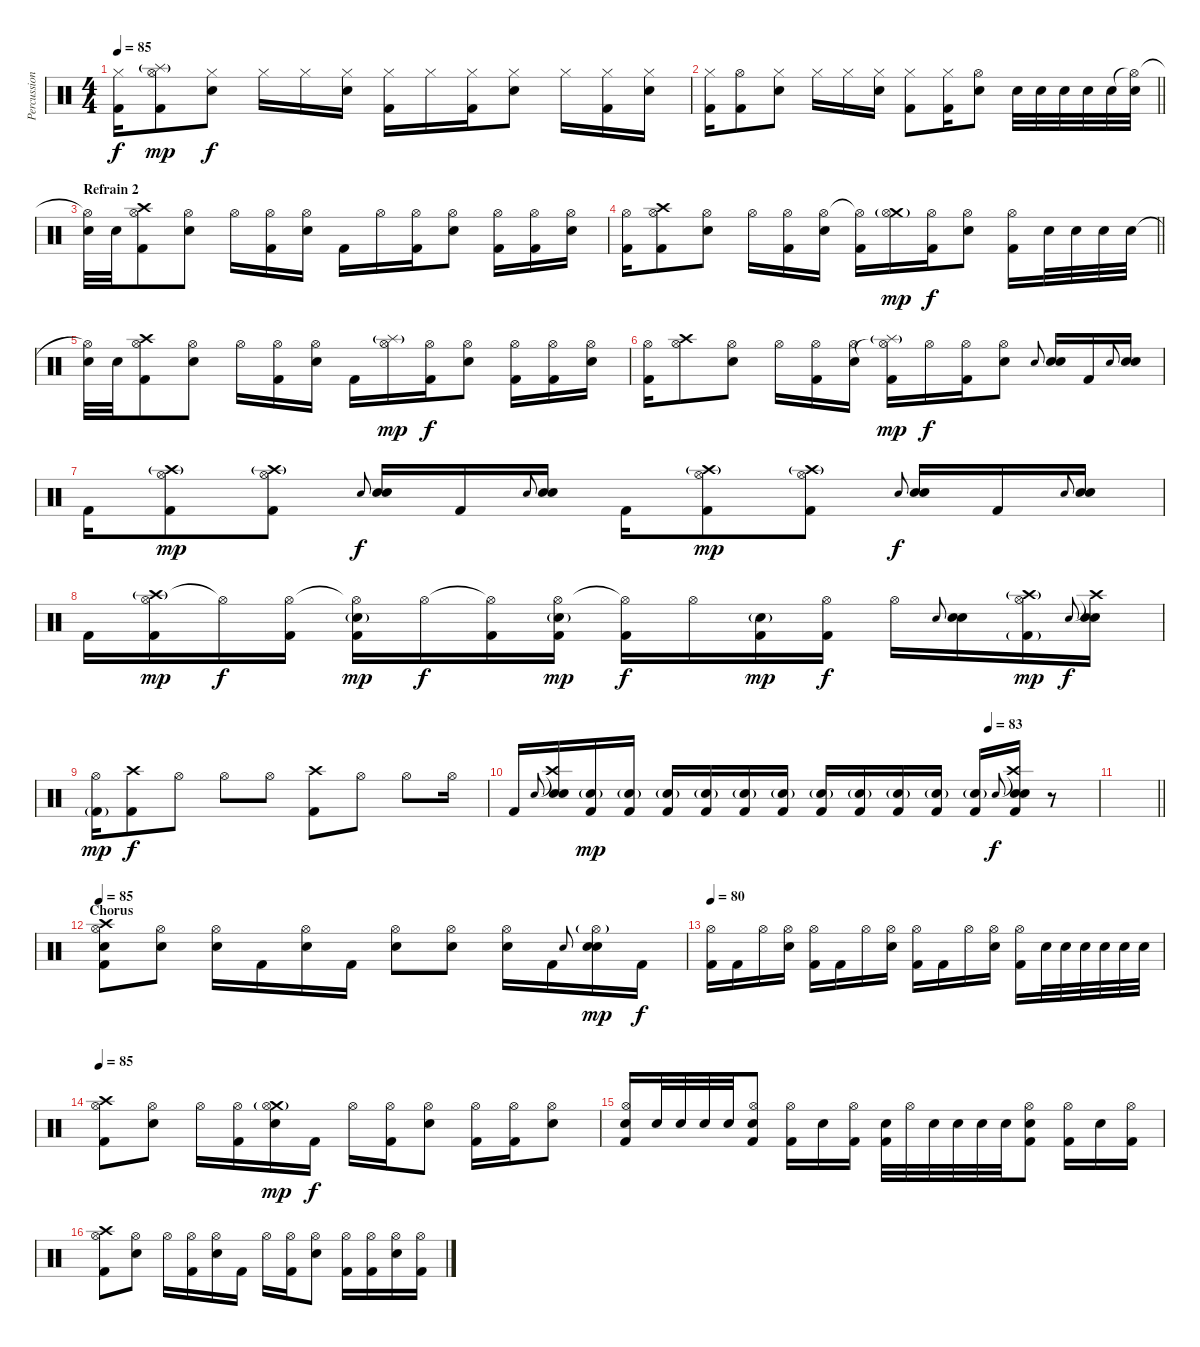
\track ("Percussion" "Percussion") {instrument percussion}
\staff {score}
\articulation defaults
\ts (4 4)
\tempo 85
\clef neutral
\ks c
("Hi-Hat (closed)" "Kick (hit) 2").16{dy f} ("Splash (hit)"{g} "Hi-Hat (open)" "Kick (hit) 2").8{dy mp} ("Hi-Hat (closed)" "Snare (hit) 2").8{dy f} "Hi-Hat (closed)".16 "Hi-Hat (closed)".16 ("Hi-Hat (closed)" "Snare (hit) 2").16 ("Hi-Hat (closed)" "Kick (hit) 2").16 "Hi-Hat (closed)".16 ("Hi-Hat (closed)" "Kick (hit) 2").16 ("Hi-Hat (closed)" "Snare (hit) 2").8 "Hi-Hat (closed)".16 ("Hi-Hat (closed)" "Kick (hit) 2").16 ("Hi-Hat (closed)" "Snare (hit) 2").16 |
\barLineRight lightlight
("Hi-Hat (closed)" "Kick (hit) 2").16 ("Hi-Hat (open)" "Kick (hit) 2").8 ("Hi-Hat (closed)" "Snare (hit) 2").8 "Hi-Hat (closed)".16 "Hi-Hat (closed)".16 ("Hi-Hat (closed)" "Snare (hit) 2").16 ("Hi-Hat (closed)" "Kick (hit) 2").8 ("Hi-Hat (closed)" "Kick (hit) 2").16 ("Hi-Hat (open)" "Snare (hit) 2").8 "Snare (hit) 2".32 "Snare (hit) 2".32 "Snare (hit) 2".32 "Snare (hit) 2".32 "Snare (hit) 2".32 ("Hi-Hat (open)"{t} "Snare (hit) 2").32 |
\section ("" "Refrain 2")
("Hi-Hat (open)"{t} "Snare (hit) 2").32 "Snare (hit) 2".32 ("Crash high (hit)" "Hi-Hat (open)" "Kick (hit) 2").8 ("Hi-Hat (open)" "Snare (hit) 2").8 "Hi-Hat (open)".16 ("Hi-Hat (open)" "Kick (hit) 2").16 ("Hi-Hat (open)" "Snare (hit) 2").16 "Kick (hit) 2".16 "Hi-Hat (open)".16 ("Hi-Hat (open)" "Kick (hit) 2").16 ("Hi-Hat (open)" "Snare (hit) 2").8 ("Hi-Hat (open)" "Kick (hit) 2").16 ("Hi-Hat (open)" "Kick (hit) 2").16 ("Hi-Hat (open)" "Snare (hit) 2").16 |
\barLineRight lightlight
("Hi-Hat (open)" "Kick (hit) 2").16 ("Crash high (hit)" "Hi-Hat (open)" "Kick (hit) 2").8 ("Hi-Hat (open)" "Snare (hit) 2").8 "Hi-Hat (open)".16 ("Hi-Hat (open)" "Kick (hit) 2").16 ("Hi-Hat (open)" "Snare (hit) 2").16 ("Hi-Hat (open)"{t} "Kick (hit) 2").16 ("Crash medium (hit)"{g} "Hi-Hat (open)").16{dy mp} ("Hi-Hat (open)" "Kick (hit) 2").16{dy f} ("Hi-Hat (open)" "Snare (hit) 2").8 ("Hi-Hat (open)" "Kick (hit) 2").16 "Snare (hit) 2".32 "Snare (hit) 2".32 "Snare (hit) 2".32 "Snare (hit) 2".32 |
("Hi-Hat (open)"{t} "Snare (hit) 2").32 "Snare (hit) 2".32 ("Crash high (hit)" "Hi-Hat (open)" "Kick (hit) 2").8 ("Hi-Hat (open)" "Snare (hit) 2").8 "Hi-Hat (open)".16 ("Hi-Hat (open)" "Kick (hit) 2").16 ("Hi-Hat (open)" "Snare (hit) 2").16 "Kick (hit) 2".16 ("Splash (hit)"{g} "Hi-Hat (open)").16{dy mp} ("Hi-Hat (open)" "Kick (hit) 2").16{dy f} ("Hi-Hat (open)" "Snare (hit) 2").8 ("Hi-Hat (open)" "Kick (hit) 2").16 ("Hi-Hat (open)" "Kick (hit) 2").16 ("Hi-Hat (open)" "Snare (hit) 2").16 |
("Hi-Hat (open)" "Kick (hit) 2").16 ("Crash high (hit)" "Hi-Hat (open)").8 ("Hi-Hat (open)" "Snare (hit) 2").8 "Hi-Hat (open)".16 ("Hi-Hat (open)" "Kick (hit) 2").16 ("Hi-Hat (open)" "Snare (hit) 2").16 ("Splash (hit)"{g} "Hi-Hat (open)"{t} "Kick (hit) 2").16{dy mp} "Hi-Hat (open)".16{dy f} ("Hi-Hat (open)" "Kick (hit) 2").16 ("Hi-Hat (open)" "Snare (hit) 2").8 "Snare (hit) 2"{h}.8{gr onbeat} ("Electric Snare (hit)" "Snare (hit) 2").16 "Kick (hit) 2".16 "Snare (hit) 2".8{gr onbeat} ("Electric Snare (hit)" "Snare (hit) 2").16 |
"Kick (hit) 2".16 ("Crash high (hit)"{g} "Hi-Hat (open)" "Kick (hit) 2").8{dy mp} ("Crash high (hit)"{g} "Hi-Hat (open)" "Kick (hit) 2").8 "Snare (hit) 2"{h}.8{gr onbeat dy f} ("Electric Snare (hit)" "Snare (hit) 2").16 "Kick (hit) 2".16 "Snare (hit) 2".8{gr onbeat} ("Electric Snare (hit)" "Snare (hit) 2").16 "Kick (hit) 2".16 ("Crash high (hit)"{g} "Hi-Hat (open)" "Kick (hit) 2").8{dy mp} ("Crash high (hit)"{g} "Hi-Hat (open)" "Kick (hit) 2").8 "Snare (hit) 2"{h}.8{gr onbeat dy f} ("Electric Snare (hit)" "Snare (hit) 2").16 "Kick (hit) 2".16 "Snare (hit) 2".8{gr onbeat} ("Electric Snare (hit)" "Snare (hit) 2").16 |
"Kick (hit) 2".16 ("Crash high (hit)"{g} "Hi-Hat (open)" "Kick (hit) 2").16{dy mp} "Hi-Hat (open)"{t}.16{dy f} ("Hi-Hat (open)" "Kick (hit) 2").16 ("Hi-Hat (open)"{t} "Snare (hit) 2"{g} "Kick (hit) 2").16{dy mp} "Hi-Hat (open)".16{dy f} ("Hi-Hat (open)"{t} "Kick (hit) 2").16 ("Hi-Hat (open)" "Snare (hit) 2"{g} "Kick (hit) 2").16{dy mp} ("Hi-Hat (open)"{t} "Kick (hit) 2").16{dy f} "Hi-Hat (open)".16 ("Snare (hit) 2"{g} "Kick (hit) 2").16{dy mp} ("Hi-Hat (open)" "Kick (hit) 2").16{dy f} "Hi-Hat (open)".16 "Snare (hit) 2"{h}.8{gr onbeat} ("Electric Snare (hit)" "Snare (hit) 2").16 ("Crash high (hit)"{g} "Hi-Hat (open)" "Kick (hit) 2"{g}).16{dy mp} "Snare (hit) 2"{h}.8{gr onbeat dy f} ("Crash high (hit)"{t} "Electric Snare (hit)" "Snare (hit) 2").16 |
("Hi-Hat (open)" "Kick (hit) 2"{g}).16{dy mp} ("Crash high (hit)" "Kick (hit) 2").8{dy f} "Hi-Hat (open)".8 "Hi-Hat (open)".8 "Hi-Hat (open)".8 ("Crash high (hit)" "Kick (hit) 2").8 "Hi-Hat (open)".8 "Hi-Hat (open)".8 "Hi-Hat (open)".16 |
\tempo (83 0.8125)
"Kick (hit) 2".16 "Snare (hit) 2"{h}.8{gr onbeat} ("Crash high (hit)"{t} "Electric Snare (hit)" "Snare (hit) 2").16 ("Snare (hit) 2"{g} "Kick (hit) 2").16{dy mp} ("Snare (hit) 2"{g} "Kick (hit) 2").16 ("Snare (hit) 2"{g} "Kick (hit) 2").16 ("Snare (hit) 2"{g} "Kick (hit) 2").16 ("Snare (hit) 2"{g} "Kick (hit) 2").16 ("Snare (hit) 2"{g} "Kick (hit) 2").16 ("Snare (hit) 2"{g} "Kick (hit) 2").16 ("Snare (hit) 2"{g} "Kick (hit) 2").16 ("Snare (hit) 2"{g} "Kick (hit) 2").16 ("Snare (hit) 2"{g} "Kick (hit) 2").16 ("Snare (hit) 2"{g} "Kick (hit) 2").16 "Snare (hit) 2"{h}.8{gr onbeat dy f} ("Crash high (hit)"{t} "Electric Snare (hit)" "Snare (hit) 2" "Kick (hit) 2").16 r.8 |
\barLineRight lightlight
|
\section ("" "Chorus")
\tempo 87
\tempo 85
("Crash high (hit)" "Hi-Hat (open)" "Snare (hit) 2" "Kick (hit) 2").8 ("Hi-Hat (open)" "Snare (hit) 2").8 ("Hi-Hat (open)" "Snare (hit) 2").16 "Kick (hit) 2".16 ("Hi-Hat (open)" "Snare (hit) 2").16 "Kick (hit) 2".16 ("Hi-Hat (open)" "Snare (hit) 2").8 ("Hi-Hat (open)" "Snare (hit) 2").8 ("Hi-Hat (open)" "Snare (hit) 2").16 "Kick (hit) 2".16 "Snare (hit) 2"{h}.8{gr onbeat} ("Hi-Hat (open)"{g} "Electric Snare (hit)" "Snare (hit) 2").16{dy mp} "Kick (hit) 2".16{dy f} |
\tempo 80
("Hi-Hat (open)" "Kick (hit) 2").16 "Kick (hit) 2".16 "Hi-Hat (open)".16 ("Hi-Hat (open)" "Snare (hit) 2").16 ("Hi-Hat (open)" "Kick (hit) 2").16 "Kick (hit) 2".16 "Hi-Hat (open)".16 ("Hi-Hat (open)" "Snare (hit) 2").16 ("Hi-Hat (open)" "Kick (hit) 2").16 "Kick (hit) 2".16 "Hi-Hat (open)".16 ("Hi-Hat (open)" "Snare (hit) 2").16 ("Hi-Hat (open)" "Kick (hit) 2").16 "Snare (hit) 2".32 "Snare (hit) 2".32 "Snare (hit) 2".32 "Snare (hit) 2".32 "Snare (hit) 2".32 "Snare (hit) 2".32 |
\tempo 87
\tempo 85
("Crash high (hit)" "Hi-Hat (open)" "Kick (hit) 2").8 ("Hi-Hat (open)" "Snare (hit) 2").8 "Hi-Hat (open)".16 ("Hi-Hat (open)" "Kick (hit) 2").16 ("Crash medium (hit)"{g} "Hi-Hat (open)" "Snare (hit) 2").16{dy mp} "Kick (hit) 2".16{dy f} "Hi-Hat (open)".16 ("Hi-Hat (open)" "Kick (hit) 2").16 ("Hi-Hat (open)" "Snare (hit) 2").8 ("Hi-Hat (open)" "Kick (hit) 2").16 ("Hi-Hat (open)" "Kick (hit) 2").16 ("Hi-Hat (open)" "Snare (hit) 2").8 |
("Hi-Hat (open)" "Snare (hit) 2" "Kick (hit) 2").16 "Snare (hit) 2".32 "Snare (hit) 2".32 "Snare (hit) 2".32 "Snare (hit) 2".32 ("Hi-Hat (open)" "Snare (hit) 2" "Kick (hit) 2").8 ("Hi-Hat (open)" "Kick (hit) 2").16 "Snare (hit) 2".16 ("Hi-Hat (open)" "Kick (hit) 2").16 ("Snare (hit) 2" "Kick (hit) 2").32 "Hi-Hat (open)".32 "Snare (hit) 2".32 "Snare (hit) 2".32 "Snare (hit) 2".32 "Snare (hit) 2".32 ("Hi-Hat (open)" "Snare (hit) 2" "Kick (hit) 2").8 ("Hi-Hat (open)" "Kick (hit) 2").16 "Snare (hit) 2".16 ("Hi-Hat (open)" "Kick (hit) 2").16 |
("Crash high (hit)" "Hi-Hat (open)" "Kick (hit) 2").8 ("Hi-Hat (open)" "Snare (hit) 2").8 "Hi-Hat (open)".16 ("Hi-Hat (open)" "Kick (hit) 2").16 ("Hi-Hat (open)" "Snare (hit) 2").16 "Kick (hit) 2".16 "Hi-Hat (open)".16 ("Hi-Hat (open)" "Kick (hit) 2").16 ("Hi-Hat (open)" "Snare (hit) 2").8 ("Hi-Hat (open)" "Kick (hit) 2").16 ("Hi-Hat (open)" "Kick (hit) 2").16 ("Hi-Hat (open)" "Snare (hit) 2").16 ("Hi-Hat (open)" "Kick (hit) 2").16
